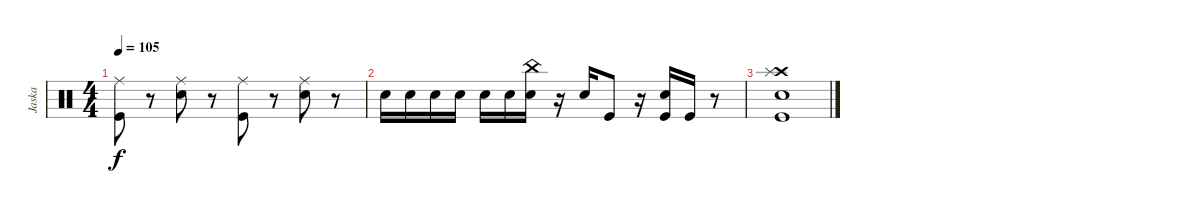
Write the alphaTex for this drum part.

\track ("Jaska" "Jaska") {instrument percussion}
\staff {score}
\articulation defaults
\ts (4 4)
\tempo 105
\clef neutral
\ks c
("Kick (hit)" "Ride (middle)").8{dy f} r.8 ("Snare (hit) 2" "Ride (middle)").8 r.8 ("Kick (hit)" "Ride (middle)").8 r.8 ("Snare (hit) 2" "Ride (middle)").8 r.8 |
"Snare (hit) 2".16 "Snare (hit) 2".16 "Snare (hit) 2".16 "Snare (hit) 2".16 "Snare (hit) 2".16 "Snare (hit) 2".16 ("Snare (hit) 2" "China (hit)").16 r.16 "Snare (hit) 2".16 "Kick (hit)".8 r.16 ("Snare (hit) 2" "Kick (hit)").16 "Kick (hit)".16 r.8 |
("Crash high (hit)" "Splash (hit)" "Snare (hit) 2" "Kick (hit)").1
